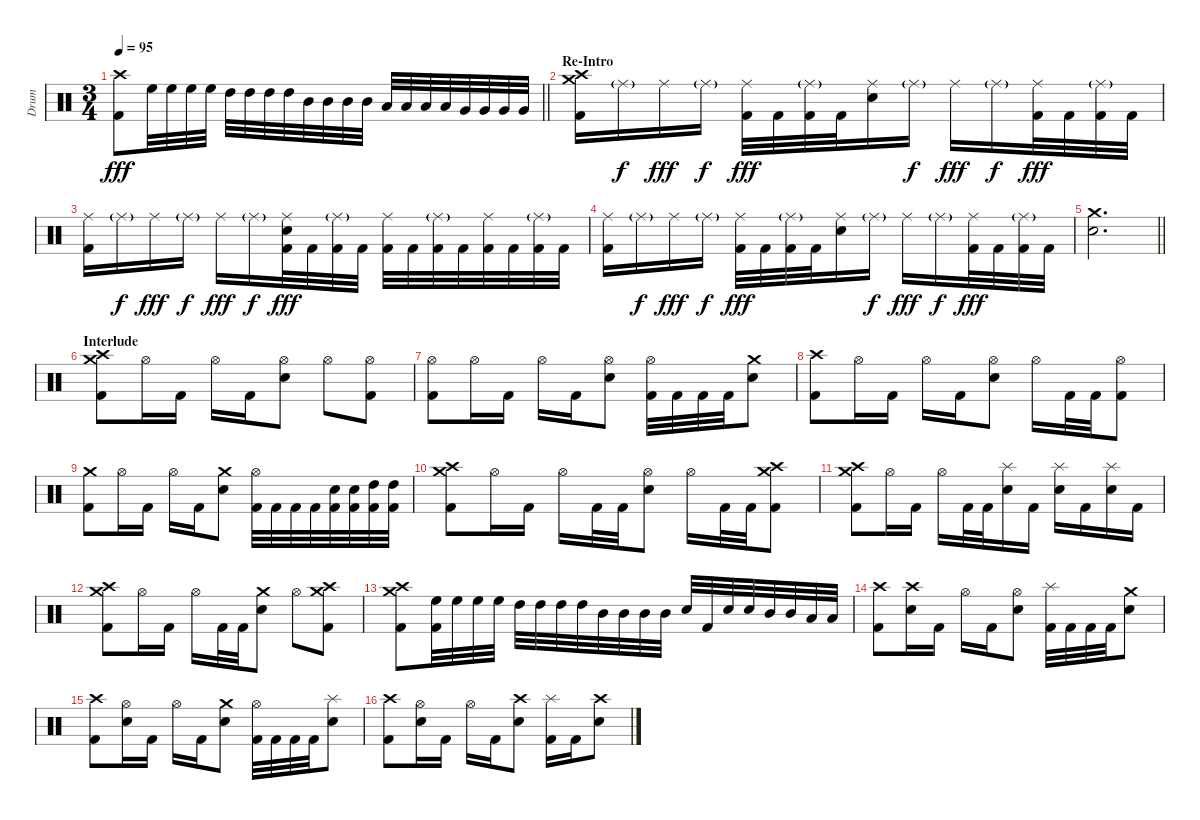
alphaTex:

\track ("Drum" "Drum") {instrument percussion}
\staff {score}
\articulation defaults
\ts (3 4)
\tempo 95
\clef neutral
\barLineRight lightlight
\ks c
("Crash high (hit)" "Kick (hit) 2").8{dy fff} "High Floor Tom (hit)".32 "High Floor Tom (hit)".32 "High Floor Tom (hit)".32 "High Floor Tom (hit)".32 "High Tom (hit)".32 "High Tom (hit)".32 "High Tom (hit)".32 "High Tom (hit)".32 "Mid Tom (hit)".32 "Mid Tom (hit)".32 "Mid Tom (hit)".32 "Mid Tom (hit)".32 "Low Tom (hit)".32 "Low Tom (hit)".32 "Low Tom (hit)".32 "Low Tom (hit)".32 "Very Low Tom (hit)".32 "Very Low Tom (hit)".32 "Very Low Tom (hit)".32 "Very Low Tom (hit)".32 |
\section ("" "Re-Intro")
("Crash high (hit)" "Crash medium (hit)" "Kick (hit) 2").16 "Ride (middle)"{g}.16{dy f} "Ride (middle)".16{dy fff} "Ride (middle)"{g}.16{dy f} ("Ride (middle)" "Kick (hit) 2").32{dy fff} "Kick (hit) 2".32 ("Ride (middle)"{g} "Kick (hit) 2").32 "Kick (hit) 2".32 ("Ride (middle)" "Electric Snare (hit)").16 "Ride (middle)"{g}.16{dy f} "Ride (middle)".16{dy fff} "Ride (middle)"{g}.16{dy f} ("Ride (middle)" "Kick (hit) 2").32{dy fff} "Kick (hit) 2".32 ("Ride (middle)"{g} "Kick (hit) 2").32 "Kick (hit) 2".32 |
("Ride (middle)" "Kick (hit) 2").16 "Ride (middle)"{g}.16{dy f} "Ride (middle)".16{dy fff} "Ride (middle)"{g}.16{dy f} "Ride (middle)".16{dy fff} "Ride (middle)"{g}.16{dy f} ("Ride (middle)" "Electric Snare (hit)" "Kick (hit) 2").32{dy fff} "Kick (hit) 2".32 ("Ride (middle)"{g} "Kick (hit) 2").32 "Kick (hit) 2".32 ("Ride (middle)" "Kick (hit) 2").32 "Kick (hit) 2".32 ("Ride (middle)"{g} "Kick (hit) 2").32 "Kick (hit) 2".32 ("Ride (middle)" "Kick (hit) 2").32 "Kick (hit) 2".32 ("Ride (middle)"{g} "Kick (hit) 2").32 "Kick (hit) 2".32 |
("Ride (middle)" "Kick (hit) 2").16 "Ride (middle)"{g}.16{dy f} "Ride (middle)".16{dy fff} "Ride (middle)"{g}.16{dy f} ("Ride (middle)" "Kick (hit) 2").32{dy fff} "Kick (hit) 2".32 ("Ride (middle)"{g} "Kick (hit) 2").32 "Kick (hit) 2".32 ("Ride (middle)" "Electric Snare (hit)").16 "Ride (middle)"{g}.16{dy f} "Ride (middle)".16{dy fff} "Ride (middle)"{g}.16{dy f} ("Ride (middle)" "Kick (hit) 2").32{dy fff} "Kick (hit) 2".32 ("Ride (middle)"{g} "Kick (hit) 2").32 "Kick (hit) 2".32 |
\barLineRight lightlight
("Crash medium (hit)" "Electric Snare (hit)").2{d} |
\section ("" "Interlude")
("Crash high (hit)" "Crash medium (hit)" "Kick (hit) 2").8 "Hi-Hat (open)".16 "Kick (hit) 2".16 "Hi-Hat (open)".16 "Kick (hit) 2".16 ("Hi-Hat (open)" "Electric Snare (hit)").8 "Hi-Hat (open)".8 ("Hi-Hat (open)" "Kick (hit) 2").8 |
("Hi-Hat (open)" "Kick (hit) 2").8 "Hi-Hat (open)".16 "Kick (hit) 2".16 "Hi-Hat (open)".16 "Kick (hit) 2".16 ("Hi-Hat (open)" "Electric Snare (hit)").8 ("Hi-Hat (open)" "Kick (hit) 2").32 "Kick (hit) 2".32 "Kick (hit) 2".32 "Kick (hit) 2".32 ("Crash medium (hit)" "Electric Snare (hit)").8 |
("Crash high (hit)" "Kick (hit) 2").8 "Hi-Hat (open)".16 "Kick (hit) 2".16 "Hi-Hat (open)".16 "Kick (hit) 2".16 ("Hi-Hat (open)" "Electric Snare (hit)").8 "Hi-Hat (open)".16 "Kick (hit) 2".32 "Kick (hit) 2".32 ("Hi-Hat (open)" "Kick (hit) 2").8 |
("Crash medium (hit)" "Kick (hit) 2").8 "Hi-Hat (open)".16 "Kick (hit) 2".16 "Hi-Hat (open)".16 "Kick (hit) 2".16 ("Crash medium (hit)" "Electric Snare (hit)").8 ("Hi-Hat (open)" "Kick (hit) 2").32 "Kick (hit) 2".32 "Kick (hit) 2".32 "Kick (hit) 2".32 ("Electric Snare (hit)" "Kick (hit) 2").32 ("Electric Snare (hit)" "Kick (hit) 2").32 ("High Tom (hit)" "Kick (hit) 2").32 ("High Tom (hit)" "Kick (hit) 2").32 |
("Crash high (hit)" "Crash medium (hit)" "Kick (hit) 2").8 "Hi-Hat (open)".16 "Kick (hit) 2".16 "Hi-Hat (open)".16 "Kick (hit) 2".32 "Kick (hit) 2".32 ("Hi-Hat (open)" "Electric Snare (hit)").8 "Hi-Hat (open)".16 "Kick (hit) 2".32 "Kick (hit) 2".32 ("Crash high (hit)" "Crash medium (hit)" "Kick (hit) 2").8 |
("Crash high (hit)" "Crash medium (hit)" "Kick (hit) 2").8 "Hi-Hat (open)".16 "Kick (hit) 2".16 "Hi-Hat (open)".16 "Kick (hit) 2".32 "Kick (hit) 2".32 ("Splash (hit)" "Electric Snare (hit)").16 "Kick (hit) 2".16 ("Splash (hit)" "Electric Snare (hit)").16 "Kick (hit) 2".16 ("Splash (hit)" "Electric Snare (hit)").16 "Kick (hit) 2".16 |
("Crash high (hit)" "Crash medium (hit)" "Kick (hit) 2").8 "Hi-Hat (open)".16 "Kick (hit) 2".16 "Hi-Hat (open)".16 "Kick (hit) 2".32 "Kick (hit) 2".32 ("Crash medium (hit)" "Electric Snare (hit)").8 "Hi-Hat (open)".8 ("Crash high (hit)" "Crash medium (hit)" "Kick (hit) 2").8 |
("Crash high (hit)" "Crash medium (hit)" "Kick (hit) 2").8 ("High Floor Tom (hit)" "Kick (hit) 2").32 "High Floor Tom (hit)".32 "High Floor Tom (hit)".32 "High Floor Tom (hit)".32 "High Tom (hit)".32 "High Tom (hit)".32 "High Tom (hit)".32 "High Tom (hit)".32 "Mid Tom (hit)".32 "Mid Tom (hit)".32 "Mid Tom (hit)".32 "Mid Tom (hit)".32 "Electric Snare (hit)".32 "Kick (hit) 2".32 "Electric Snare (hit)".32 "Electric Snare (hit)".32 "Mid Tom (hit)".32 "Mid Tom (hit)".32 "Low Tom (hit)".32 "Low Tom (hit)".32 |
("Crash high (hit)" "Kick (hit) 2").8 ("Crash high (hit)" "Electric Snare (hit)").16 "Kick (hit) 2".16 "Hi-Hat (open)".16 "Kick (hit) 2".16 ("Hi-Hat (open)" "Electric Snare (hit)").8 ("Splash (hit)" "Kick (hit) 2").32 "Kick (hit) 2".32 "Kick (hit) 2".32 "Kick (hit) 2".32 ("Crash medium (hit)" "Electric Snare (hit)").8 |
("Crash high (hit)" "Kick (hit) 2").8 ("Hi-Hat (open)" "Electric Snare (hit)").16 "Kick (hit) 2".16 "Hi-Hat (open)".16 "Kick (hit) 2".16 ("Crash medium (hit)" "Electric Snare (hit)").8 ("Hi-Hat (open)" "Kick (hit) 2").32 "Kick (hit) 2".32 "Kick (hit) 2".32 "Kick (hit) 2".32 ("Splash (hit)" "Electric Snare (hit)").8 |
("Crash high (hit)" "Kick (hit) 2").8 ("Hi-Hat (open)" "Electric Snare (hit)").16 "Kick (hit) 2".16 "Hi-Hat (open)".16 "Kick (hit) 2".16 ("Crash high (hit)" "Electric Snare (hit)").8 ("Splash (hit)" "Kick (hit) 2").16 "Kick (hit) 2".16 ("Crash high (hit)" "Electric Snare (hit)").8
